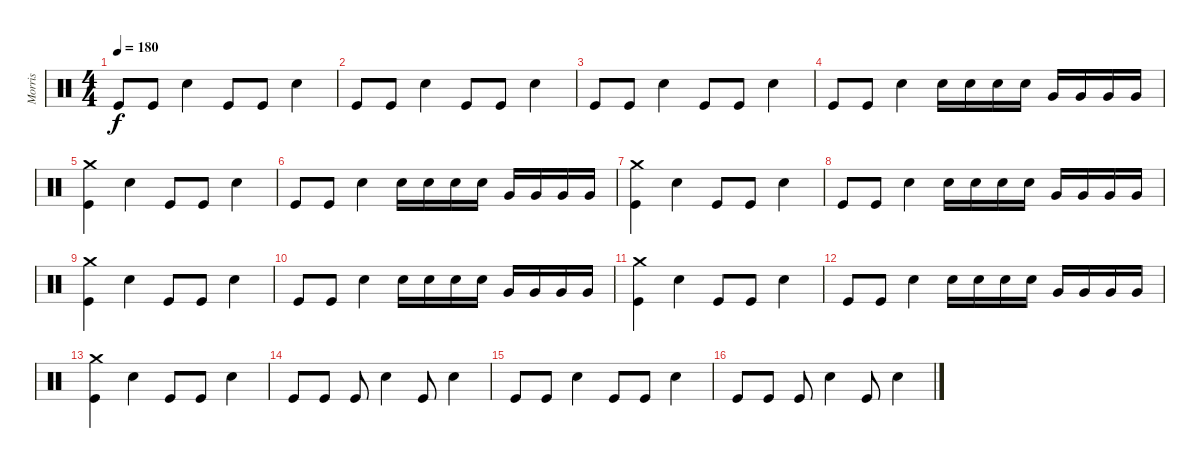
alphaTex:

\track ("Morris" "Morris") {instrument percussion}
\staff {score}
\articulation defaults
\ts (4 4)
\tempo 180
\clef neutral
\ks c "Kick (hit)".8{dy f} "Kick (hit)".8 "Electric Snare (hit)".4 "Kick (hit)".8 "Kick (hit)".8 "Electric Snare (hit)".4
|
"Kick (hit)".8 "Kick (hit)".8 "Electric Snare (hit)".4 "Kick (hit)".8 "Kick (hit)".8 "Electric Snare (hit)".4 |
"Kick (hit)".8 "Kick (hit)".8 "Electric Snare (hit)".4 "Kick (hit)".8 "Kick (hit)".8 "Electric Snare (hit)".4 |
"Kick (hit)".8 "Kick (hit)".8 "Electric Snare (hit)".4 "Electric Snare (hit)".16 "Electric Snare (hit)".16 "Electric Snare (hit)".16 "Electric Snare (hit)".16 "Very Low Tom (hit)".16 "Very Low Tom (hit)".16 "Very Low Tom (hit)".16 "Very Low Tom (hit)".16 |
("Crash medium (hit)" "Kick (hit)").4 "Electric Snare (hit)".4 "Kick (hit)".8 "Kick (hit)".8 "Electric Snare (hit)".4 |
"Kick (hit)".8 "Kick (hit)".8 "Electric Snare (hit)".4 "Electric Snare (hit)".16 "Electric Snare (hit)".16 "Electric Snare (hit)".16 "Electric Snare (hit)".16 "Very Low Tom (hit)".16 "Very Low Tom (hit)".16 "Very Low Tom (hit)".16 "Very Low Tom (hit)".16 |
("Crash medium (hit)" "Kick (hit)").4 "Electric Snare (hit)".4 "Kick (hit)".8 "Kick (hit)".8 "Electric Snare (hit)".4 |
"Kick (hit)".8 "Kick (hit)".8 "Electric Snare (hit)".4 "Electric Snare (hit)".16 "Electric Snare (hit)".16 "Electric Snare (hit)".16 "Electric Snare (hit)".16 "Very Low Tom (hit)".16 "Very Low Tom (hit)".16 "Very Low Tom (hit)".16 "Very Low Tom (hit)".16 |
("Crash medium (hit)" "Kick (hit)").4 "Electric Snare (hit)".4 "Kick (hit)".8 "Kick (hit)".8 "Electric Snare (hit)".4 |
"Kick (hit)".8 "Kick (hit)".8 "Electric Snare (hit)".4 "Electric Snare (hit)".16 "Electric Snare (hit)".16 "Electric Snare (hit)".16 "Electric Snare (hit)".16 "Very Low Tom (hit)".16 "Very Low Tom (hit)".16 "Very Low Tom (hit)".16 "Very Low Tom (hit)".16 |
("Crash medium (hit)" "Kick (hit)").4 "Electric Snare (hit)".4 "Kick (hit)".8 "Kick (hit)".8 "Electric Snare (hit)".4 |
"Kick (hit)".8 "Kick (hit)".8 "Electric Snare (hit)".4 "Electric Snare (hit)".16 "Electric Snare (hit)".16 "Electric Snare (hit)".16 "Electric Snare (hit)".16 "Very Low Tom (hit)".16 "Very Low Tom (hit)".16 "Very Low Tom (hit)".16 "Very Low Tom (hit)".16 |
("Crash medium (hit)" "Kick (hit)").4 "Electric Snare (hit)".4 "Kick (hit)".8 "Kick (hit)".8 "Electric Snare (hit)".4 |
"Kick (hit)".8 "Kick (hit)".8 "Kick (hit)".8 "Electric Snare (hit)".4 "Kick (hit)".8 "Electric Snare (hit)".4 |
"Kick (hit)".8 "Kick (hit)".8 "Electric Snare (hit)".4 "Kick (hit)".8 "Kick (hit)".8 "Electric Snare (hit)".4 |
"Kick (hit)".8 "Kick (hit)".8 "Kick (hit)".8 "Electric Snare (hit)".4 "Kick (hit)".8 "Electric Snare (hit)".4
